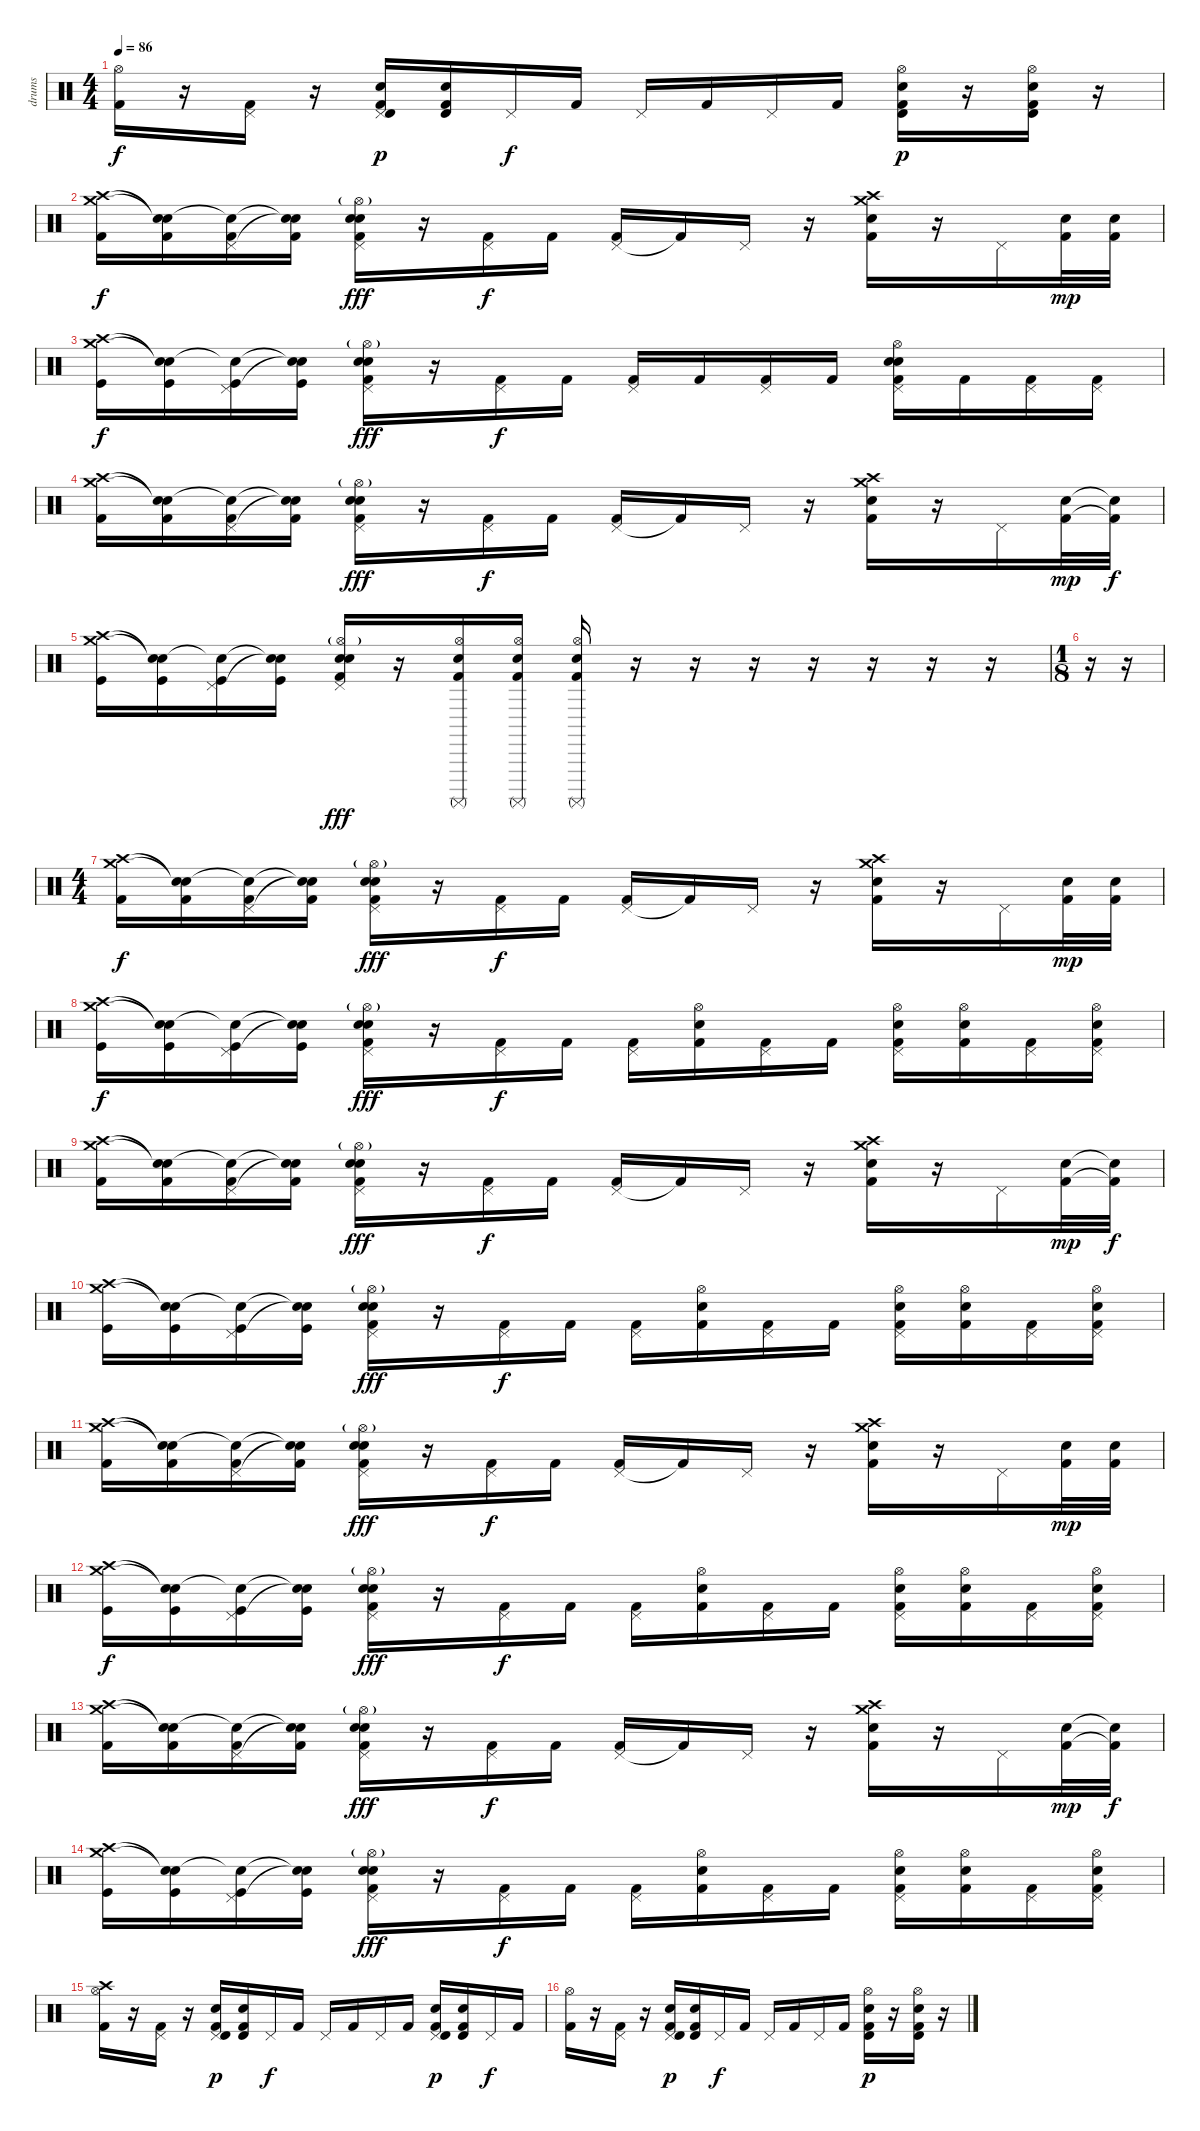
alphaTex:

\track ("drums" "drums") {instrument percussion}
\staff {score}
\articulation defaults
\ts (4 4)
\tempo 86
\clef neutral
\ks c
("Hi-Hat (open)" "Kick (hit) 2").16{dy f} r.16 ("Pedal Hi-Hat (hit)" "Kick (hit) 2").16 r.16 ("Pedal Hi-Hat (hit)" "Timbale high (hit)" "Electric Snare (hit)" "Kick (hit) 2").16{dy p} ("Timbale high (hit)" "Electric Snare (hit)" "Kick (hit) 2").16 "Pedal Hi-Hat (hit)".16{dy f} "Kick (hit) 2".16 "Pedal Hi-Hat (hit)".16 "Kick (hit) 2".16 "Pedal Hi-Hat (hit)".16 "Kick (hit) 2".16 ("Hi-Hat (open)" "Timbale high (hit)" "Electric Snare (hit)" "Kick (hit) 2").16{dy p} r.16 ("Hi-Hat (open)" "Timbale high (hit)" "Electric Snare (hit)" "Kick (hit) 2").16 r.16 |
("Crash high (hit)" "Crash medium (hit)" "Kick (hit) 2").16{dy f} ("Snare (hit)"{t} "Snare (hit)"{t} "Kick (hit) 2").16 ("Pedal Hi-Hat (hit)" "Snare (hit)"{t} "Kick (hit) 2").16 ("Snare (hit)"{t} "Snare (hit)"{t} "Kick (hit) 2").16 ("Pedal Hi-Hat (hit)" "Hi-Hat (open)"{g} "Electric Snare (hit)" "Electric Snare (hit)" "Kick (hit) 2").16{dy fff} r.16 ("Pedal Hi-Hat (hit)" "Kick (hit) 2").16{dy f} "Kick (hit) 2".16 ("Pedal Hi-Hat (hit)" "Kick (hit) 2").16 "Kick (hit) 2"{t}.16 "Pedal Hi-Hat (hit)".16 r.16 ("Crash high (hit)" "Crash medium (hit)" "Kick (hit) 2" "Electric Snare (hit)").16 r.16 "Pedal Hi-Hat (hit)".16 ("Kick (hit) 2" "Electric Snare (hit)").32{dy mp} ("Kick (hit) 2" "Electric Snare (hit)").32 |
("Crash high (hit)" "Crash medium (hit)" "Kick (hit)").16{dy f} ("Snare (hit)"{t} "Snare (hit)"{t} "Kick (hit)").16 ("Pedal Hi-Hat (hit)" "Snare (hit)"{t} "Kick (hit)").16 ("Snare (hit)"{t} "Snare (hit)"{t} "Kick (hit)").16 ("Pedal Hi-Hat (hit)" "Hi-Hat (open)"{g} "Electric Snare (hit)" "Electric Snare (hit)" "Kick (hit) 2").16{dy fff} r.16 ("Pedal Hi-Hat (hit)" "Kick (hit) 2").16{dy f} "Kick (hit) 2".16 ("Pedal Hi-Hat (hit)" "Kick (hit) 2").16 "Kick (hit) 2".16 ("Pedal Hi-Hat (hit)" "Kick (hit) 2").16 "Kick (hit) 2".16 ("Pedal Hi-Hat (hit)" "Hi-Hat (open)" "Electric Snare (hit)" "Electric Snare (hit)" "Kick (hit) 2").16 "Kick (hit) 2".16 ("Pedal Hi-Hat (hit)" "Kick (hit) 2").16 ("Pedal Hi-Hat (hit)" "Kick (hit) 2").16 |
("Crash high (hit)" "Crash medium (hit)" "Kick (hit) 2").16 ("Snare (hit)"{t} "Snare (hit)"{t} "Kick (hit) 2").16 ("Pedal Hi-Hat (hit)" "Snare (hit)"{t} "Kick (hit) 2").16 ("Snare (hit)"{t} "Snare (hit)"{t} "Kick (hit) 2").16 ("Pedal Hi-Hat (hit)" "Hi-Hat (open)"{g} "Electric Snare (hit)" "Electric Snare (hit)" "Kick (hit) 2").16{dy fff} r.16 ("Pedal Hi-Hat (hit)" "Kick (hit) 2").16{dy f} "Kick (hit) 2".16 ("Pedal Hi-Hat (hit)" "Kick (hit) 2").16 "Kick (hit) 2"{t}.16 "Pedal Hi-Hat (hit)".16 r.16 ("Crash high (hit)" "Crash medium (hit)" "Kick (hit) 2" "Electric Snare (hit)").16 r.16 "Pedal Hi-Hat (hit)".16 ("Kick (hit) 2" "Electric Snare (hit)").32{dy mp} ("Kick (hit) 2"{t} "Electric Snare (hit)"{t}).32{dy f} |
("Crash high (hit)" "Crash medium (hit)" "Kick (hit)").16 ("Snare (hit)"{t} "Snare (hit)"{t} "Kick (hit)").16 ("Pedal Hi-Hat (hit)" "Snare (hit)"{t} "Kick (hit)").16 ("Snare (hit)"{t} "Snare (hit)"{t} "Kick (hit)").16 ("Pedal Hi-Hat (hit)" "Hi-Hat (open)"{g} "Electric Snare (hit)" "Electric Snare (hit)" "Kick (hit) 2").16{dy fff} r.16 ("Surdo (mute)" "Hi-Hat (open)" "Electric Snare (hit)" "Kick (hit) 2").16 ("Surdo (mute)" "Hi-Hat (open)" "Electric Snare (hit)" "Kick (hit) 2").16 ("Surdo (mute)" "Hi-Hat (open)" "Electric Snare (hit)" "Kick (hit) 2").16 r.16 r.16 r.16 r.16 r.16 r.16 r.16 |
\ts (1 8)
r.16 r.16 |
\ts (4 4)
("Crash high (hit)" "Crash medium (hit)" "Kick (hit) 2").16{dy f} ("Snare (hit)"{t} "Snare (hit)"{t} "Kick (hit) 2").16 ("Pedal Hi-Hat (hit)" "Snare (hit)"{t} "Kick (hit) 2").16 ("Snare (hit)"{t} "Snare (hit)"{t} "Kick (hit) 2").16 ("Pedal Hi-Hat (hit)" "Hi-Hat (open)"{g} "Electric Snare (hit)" "Electric Snare (hit)" "Kick (hit) 2").16{dy fff} r.16 ("Pedal Hi-Hat (hit)" "Kick (hit) 2").16{dy f} "Kick (hit) 2".16 ("Pedal Hi-Hat (hit)" "Kick (hit) 2").16 "Kick (hit) 2"{t}.16 "Pedal Hi-Hat (hit)".16 r.16 ("Crash high (hit)" "Crash medium (hit)" "Kick (hit) 2" "Electric Snare (hit)").16 r.16 "Pedal Hi-Hat (hit)".16 ("Kick (hit) 2" "Electric Snare (hit)").32{dy mp} ("Kick (hit) 2" "Electric Snare (hit)").32 |
("Crash high (hit)" "Crash medium (hit)" "Kick (hit)").16{dy f} ("Snare (hit)"{t} "Snare (hit)"{t} "Kick (hit)").16 ("Pedal Hi-Hat (hit)" "Snare (hit)"{t} "Kick (hit)").16 ("Snare (hit)"{t} "Snare (hit)"{t} "Kick (hit)").16 ("Pedal Hi-Hat (hit)" "Hi-Hat (open)"{g} "Electric Snare (hit)" "Electric Snare (hit)" "Kick (hit) 2").16{dy fff} r.16 ("Pedal Hi-Hat (hit)" "Kick (hit) 2").16{dy f} "Kick (hit) 2".16 ("Pedal Hi-Hat (hit)" "Kick (hit) 2").16 ("Hi-Hat (open)" "Electric Snare (hit)" "Kick (hit) 2").16 ("Pedal Hi-Hat (hit)" "Kick (hit) 2").16 "Kick (hit) 2".16 ("Pedal Hi-Hat (hit)" "Hi-Hat (open)" "Electric Snare (hit)" "Kick (hit) 2").16 ("Hi-Hat (open)" "Electric Snare (hit)" "Kick (hit) 2").16 ("Pedal Hi-Hat (hit)" "Kick (hit) 2").16 ("Pedal Hi-Hat (hit)" "Hi-Hat (open)" "Electric Snare (hit)" "Kick (hit) 2").16 |
("Crash high (hit)" "Crash medium (hit)" "Kick (hit) 2").16 ("Snare (hit)"{t} "Snare (hit)"{t} "Kick (hit) 2").16 ("Pedal Hi-Hat (hit)" "Snare (hit)"{t} "Kick (hit) 2").16 ("Snare (hit)"{t} "Snare (hit)"{t} "Kick (hit) 2").16 ("Pedal Hi-Hat (hit)" "Hi-Hat (open)"{g} "Electric Snare (hit)" "Electric Snare (hit)" "Kick (hit) 2").16{dy fff} r.16 ("Pedal Hi-Hat (hit)" "Kick (hit) 2").16{dy f} "Kick (hit) 2".16 ("Pedal Hi-Hat (hit)" "Kick (hit) 2").16 "Kick (hit) 2"{t}.16 "Pedal Hi-Hat (hit)".16 r.16 ("Crash high (hit)" "Crash medium (hit)" "Kick (hit) 2" "Electric Snare (hit)").16 r.16 "Pedal Hi-Hat (hit)".16 ("Kick (hit) 2" "Electric Snare (hit)").32{dy mp} ("Kick (hit) 2"{t} "Electric Snare (hit)"{t}).32{dy f} |
("Crash high (hit)" "Crash medium (hit)" "Kick (hit)").16 ("Snare (hit)"{t} "Snare (hit)"{t} "Kick (hit)").16 ("Pedal Hi-Hat (hit)" "Snare (hit)"{t} "Kick (hit)").16 ("Snare (hit)"{t} "Snare (hit)"{t} "Kick (hit)").16 ("Pedal Hi-Hat (hit)" "Hi-Hat (open)"{g} "Electric Snare (hit)" "Electric Snare (hit)" "Kick (hit) 2").16{dy fff} r.16 ("Pedal Hi-Hat (hit)" "Kick (hit) 2").16{dy f} "Kick (hit) 2".16 ("Pedal Hi-Hat (hit)" "Kick (hit) 2").16 ("Hi-Hat (open)" "Electric Snare (hit)" "Kick (hit) 2").16 ("Pedal Hi-Hat (hit)" "Kick (hit) 2").16 "Kick (hit) 2".16 ("Pedal Hi-Hat (hit)" "Hi-Hat (open)" "Electric Snare (hit)" "Kick (hit) 2").16 ("Hi-Hat (open)" "Electric Snare (hit)" "Kick (hit) 2").16 ("Pedal Hi-Hat (hit)" "Kick (hit) 2").16 ("Pedal Hi-Hat (hit)" "Hi-Hat (open)" "Electric Snare (hit)" "Kick (hit) 2").16 |
("Crash high (hit)" "Crash medium (hit)" "Kick (hit) 2").16 ("Snare (hit)"{t} "Snare (hit)"{t} "Kick (hit) 2").16 ("Pedal Hi-Hat (hit)" "Snare (hit)"{t} "Kick (hit) 2").16 ("Snare (hit)"{t} "Snare (hit)"{t} "Kick (hit) 2").16 ("Pedal Hi-Hat (hit)" "Hi-Hat (open)"{g} "Electric Snare (hit)" "Electric Snare (hit)" "Kick (hit) 2").16{dy fff} r.16 ("Pedal Hi-Hat (hit)" "Kick (hit) 2").16{dy f} "Kick (hit) 2".16 ("Pedal Hi-Hat (hit)" "Kick (hit) 2").16 "Kick (hit) 2"{t}.16 "Pedal Hi-Hat (hit)".16 r.16 ("Crash high (hit)" "Crash medium (hit)" "Kick (hit) 2" "Electric Snare (hit)").16 r.16 "Pedal Hi-Hat (hit)".16 ("Kick (hit) 2" "Electric Snare (hit)").32{dy mp} ("Kick (hit) 2" "Electric Snare (hit)").32 |
("Crash high (hit)" "Crash medium (hit)" "Kick (hit)").16{dy f} ("Snare (hit)"{t} "Snare (hit)"{t} "Kick (hit)").16 ("Pedal Hi-Hat (hit)" "Snare (hit)"{t} "Kick (hit)").16 ("Snare (hit)"{t} "Snare (hit)"{t} "Kick (hit)").16 ("Pedal Hi-Hat (hit)" "Hi-Hat (open)"{g} "Electric Snare (hit)" "Electric Snare (hit)" "Kick (hit) 2").16{dy fff} r.16 ("Pedal Hi-Hat (hit)" "Kick (hit) 2").16{dy f} "Kick (hit) 2".16 ("Pedal Hi-Hat (hit)" "Kick (hit) 2").16 ("Hi-Hat (open)" "Electric Snare (hit)" "Kick (hit) 2").16 ("Pedal Hi-Hat (hit)" "Kick (hit) 2").16 "Kick (hit) 2".16 ("Pedal Hi-Hat (hit)" "Hi-Hat (open)" "Electric Snare (hit)" "Kick (hit) 2").16 ("Hi-Hat (open)" "Electric Snare (hit)" "Kick (hit) 2").16 ("Pedal Hi-Hat (hit)" "Kick (hit) 2").16 ("Pedal Hi-Hat (hit)" "Hi-Hat (open)" "Electric Snare (hit)" "Kick (hit) 2").16 |
("Crash high (hit)" "Crash medium (hit)" "Kick (hit) 2").16 ("Snare (hit)"{t} "Snare (hit)"{t} "Kick (hit) 2").16 ("Pedal Hi-Hat (hit)" "Snare (hit)"{t} "Kick (hit) 2").16 ("Snare (hit)"{t} "Snare (hit)"{t} "Kick (hit) 2").16 ("Pedal Hi-Hat (hit)" "Hi-Hat (open)"{g} "Electric Snare (hit)" "Electric Snare (hit)" "Kick (hit) 2").16{dy fff} r.16 ("Pedal Hi-Hat (hit)" "Kick (hit) 2").16{dy f} "Kick (hit) 2".16 ("Pedal Hi-Hat (hit)" "Kick (hit) 2").16 "Kick (hit) 2"{t}.16 "Pedal Hi-Hat (hit)".16 r.16 ("Crash high (hit)" "Crash medium (hit)" "Kick (hit) 2" "Electric Snare (hit)").16 r.16 "Pedal Hi-Hat (hit)".16 ("Kick (hit) 2" "Electric Snare (hit)").32{dy mp} ("Kick (hit) 2"{t} "Electric Snare (hit)"{t}).32{dy f} |
("Crash high (hit)" "Crash medium (hit)" "Kick (hit)").16 ("Snare (hit)"{t} "Snare (hit)"{t} "Kick (hit)").16 ("Pedal Hi-Hat (hit)" "Snare (hit)"{t} "Kick (hit)").16 ("Snare (hit)"{t} "Snare (hit)"{t} "Kick (hit)").16 ("Pedal Hi-Hat (hit)" "Hi-Hat (open)"{g} "Electric Snare (hit)" "Electric Snare (hit)" "Kick (hit) 2").16{dy fff} r.16 ("Pedal Hi-Hat (hit)" "Kick (hit) 2").16{dy f} "Kick (hit) 2".16 ("Pedal Hi-Hat (hit)" "Kick (hit) 2").16 ("Hi-Hat (open)" "Electric Snare (hit)" "Kick (hit) 2").16 ("Pedal Hi-Hat (hit)" "Kick (hit) 2").16 "Kick (hit) 2".16 ("Pedal Hi-Hat (hit)" "Hi-Hat (open)" "Electric Snare (hit)" "Kick (hit) 2").16 ("Hi-Hat (open)" "Electric Snare (hit)" "Kick (hit) 2").16 ("Pedal Hi-Hat (hit)" "Kick (hit) 2").16 ("Pedal Hi-Hat (hit)" "Hi-Hat (open)" "Electric Snare (hit)" "Kick (hit) 2").16 |
("Hi-Hat (open)" "Crash high (hit)" "Kick (hit) 2").16 r.16 ("Pedal Hi-Hat (hit)" "Kick (hit) 2").16 r.16 ("Pedal Hi-Hat (hit)" "Timbale high (hit)" "Electric Snare (hit)" "Kick (hit) 2").16{dy p} ("Timbale high (hit)" "Electric Snare (hit)" "Kick (hit) 2").16 "Pedal Hi-Hat (hit)".16{dy f} "Kick (hit) 2".16 "Pedal Hi-Hat (hit)".16 "Kick (hit) 2".16 "Pedal Hi-Hat (hit)".16 "Kick (hit) 2".16 ("Pedal Hi-Hat (hit)" "Timbale high (hit)" "Electric Snare (hit)" "Kick (hit) 2").16{dy p} ("Timbale high (hit)" "Electric Snare (hit)" "Kick (hit) 2").16 "Pedal Hi-Hat (hit)".16{dy f} "Kick (hit) 2".16 |
("Hi-Hat (open)" "Kick (hit) 2").16 r.16 ("Pedal Hi-Hat (hit)" "Kick (hit) 2").16 r.16 ("Pedal Hi-Hat (hit)" "Timbale high (hit)" "Electric Snare (hit)" "Kick (hit) 2").16{dy p} ("Timbale high (hit)" "Electric Snare (hit)" "Kick (hit) 2").16 "Pedal Hi-Hat (hit)".16{dy f} "Kick (hit) 2".16 "Pedal Hi-Hat (hit)".16 "Kick (hit) 2".16 "Pedal Hi-Hat (hit)".16 "Kick (hit) 2".16 ("Hi-Hat (open)" "Timbale high (hit)" "Electric Snare (hit)" "Kick (hit) 2").16{dy p} r.16 ("Hi-Hat (open)" "Timbale high (hit)" "Electric Snare (hit)" "Kick (hit) 2").16 r.16
